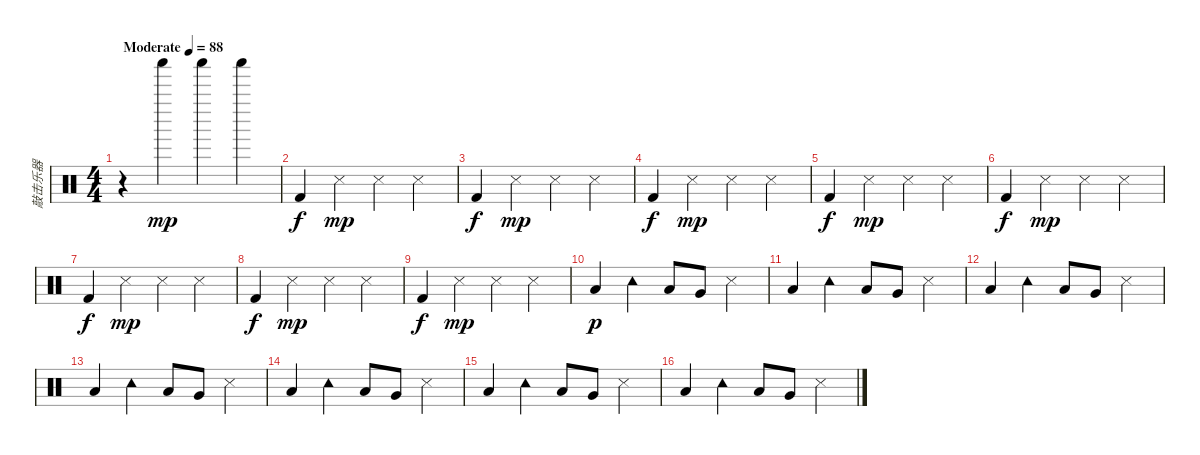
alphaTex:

\track ("敲击乐器" "敲击乐器") {instrument percussion}
\staff {score}
\articulation defaults
\ts (4 4)
\tempo (88 "Moderate")
\clef neutral
\ks c
r.4{dy mp} "Shaker (hit)".4 "Shaker (hit)".4 "Shaker (hit)".4 |
"Kick (hit) 2".4{dy f} "Snare (side stick) 3".4{dy mp} "Snare (side stick) 3".4 "Snare (side stick) 3".4 |
"Kick (hit) 2".4{dy f} "Snare (side stick) 3".4{dy mp} "Snare (side stick) 3".4 "Snare (side stick) 3".4 |
"Kick (hit) 2".4{dy f} "Snare (side stick) 3".4{dy mp} "Snare (side stick) 3".4 "Snare (side stick) 3".4 |
"Kick (hit) 2".4{dy f} "Snare (side stick) 3".4{dy mp} "Snare (side stick) 3".4 "Snare (side stick) 3".4 |
"Kick (hit) 2".4{dy f} "Snare (side stick) 3".4{dy mp} "Snare (side stick) 3".4 "Snare (side stick) 3".4 |
"Kick (hit) 2".4{dy f} "Snare (side stick) 3".4{dy mp} "Snare (side stick) 3".4 "Snare (side stick) 3".4 |
"Kick (hit) 2".4{dy f} "Snare (side stick) 3".4{dy mp} "Snare (side stick) 3".4 "Snare (side stick) 3".4 |
"Kick (hit) 2".4{dy f} "Snare (side stick) 3".4{dy mp} "Snare (side stick) 3".4 "Snare (side stick) 3".4 |
"Low Floor Tom (hit)".4{dy p} "Tambourine (hit)".4 "Low Floor Tom (hit)".8 "Very Low Tom (hit)".8 "Snare (side stick) 3".4 |
"Low Floor Tom (hit)".4 "Tambourine (hit)".4 "Low Floor Tom (hit)".8 "Very Low Tom (hit)".8 "Snare (side stick) 3".4 |
"Low Floor Tom (hit)".4 "Tambourine (hit)".4 "Low Floor Tom (hit)".8 "Very Low Tom (hit)".8 "Snare (side stick) 3".4 |
"Low Floor Tom (hit)".4 "Tambourine (hit)".4 "Low Floor Tom (hit)".8 "Very Low Tom (hit)".8 "Snare (side stick) 3".4 |
"Low Floor Tom (hit)".4 "Tambourine (hit)".4 "Low Floor Tom (hit)".8 "Very Low Tom (hit)".8 "Snare (side stick) 3".4 |
"Low Floor Tom (hit)".4 "Tambourine (hit)".4 "Low Floor Tom (hit)".8 "Very Low Tom (hit)".8 "Snare (side stick) 3".4 |
"Low Floor Tom (hit)".4 "Tambourine (hit)".4 "Low Floor Tom (hit)".8 "Very Low Tom (hit)".8 "Snare (side stick) 3".4
